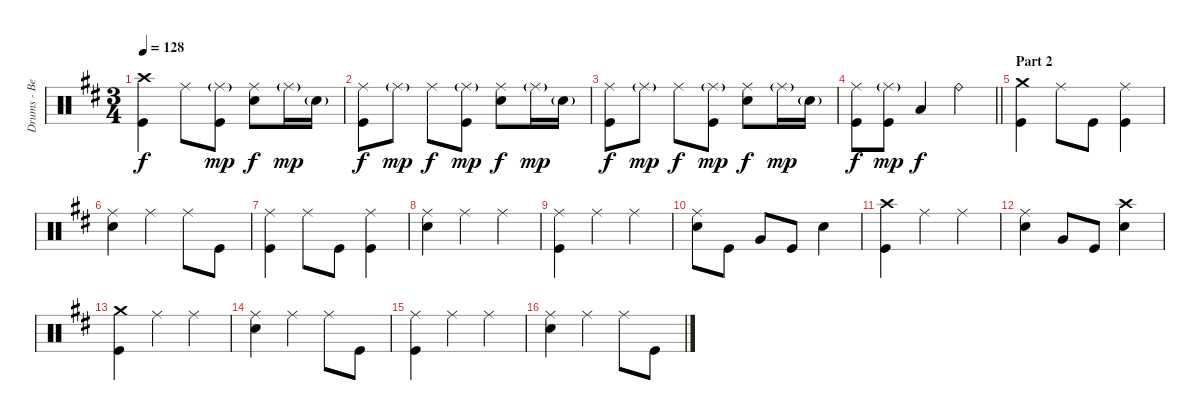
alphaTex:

\track ("Drums - Ben Johnston" "Drums - Be") {instrument percussion}
\staff {score}
\articulation defaults
\ts (3 4)
\tempo 128
\clef neutral
\ks d
("Crash high (hit)" "Kick (hit)").4{dy f} "Ride (middle)".8 ("Ride (middle)"{g} "Kick (hit)").8{dy mp} ("Ride (middle)" "Snare (hit) 2").8{dy f} "Ride (middle)"{g}.16{dy mp} "Snare (hit) 2"{g}.16 |
("Ride (middle)" "Kick (hit)").8{dy f} "Ride (middle)"{g}.8{dy mp} "Ride (middle)".8{dy f} ("Ride (middle)"{g} "Kick (hit)").8{dy mp} ("Ride (middle)" "Snare (hit) 2").8{dy f} "Ride (middle)"{g}.16{dy mp} "Snare (hit) 2"{g}.16 |
("Ride (middle)" "Kick (hit)").8{dy f} "Ride (middle)"{g}.8{dy mp} "Ride (middle)".8{dy f} ("Ride (middle)"{g} "Kick (hit)").8{dy mp} ("Ride (middle)" "Snare (hit) 2").8{dy f} "Ride (middle)"{g}.16{dy mp} "Snare (hit) 2"{g}.16 |
\barLineRight lightlight
("Ride (middle)" "Kick (hit)").8{dy f} ("Ride (middle)"{g} "Kick (hit)").8{dy mp} "Low Floor Tom (hit)".4{dy f} "Ride (bell)".4 |
\section ("" "Part 2")
("Crash medium (hit)" "Kick (hit)").4 "Ride (middle)".8 "Kick (hit)".8 ("Ride (middle)" "Kick (hit)").4 |
("Ride (middle)" "Snare (hit) 2").4 "Ride (middle)".4 "Ride (middle)".8 "Kick (hit)".8 |
("Ride (middle)" "Kick (hit)").4 "Ride (middle)".8 "Kick (hit)".8 ("Ride (middle)" "Kick (hit)").4 |
("Ride (middle)" "Snare (hit) 2").4 "Ride (middle)".4 "Ride (middle)".4 |
("Ride (middle)" "Kick (hit)").4 "Ride (middle)".4 "Ride (middle)".4 |
("Ride (middle)" "Snare (hit) 2").8 "Kick (hit)".8 "Very Low Tom (hit)".8 "Kick (hit)".8 "Snare (hit) 2".4 |
("Crash high (hit)" "Kick (hit)").4 "Ride (middle)".4 "Ride (middle)".4 |
("Ride (middle)" "Snare (hit) 2").4 "Very Low Tom (hit)".8 "Kick (hit)".8 ("Crash high (hit)" "Snare (hit) 2").4 |
("Crash medium (hit)" "Kick (hit)").4 "Ride (middle)".4 "Ride (middle)".4 |
("Ride (middle)" "Snare (hit) 2").4 "Ride (middle)".4 "Ride (middle)".8 "Kick (hit)".8 |
("Ride (middle)" "Kick (hit)").4 "Ride (middle)".4 "Ride (middle)".4 |
("Ride (middle)" "Snare (hit) 2").4 "Ride (middle)".4 "Ride (middle)".8 "Kick (hit)".8
